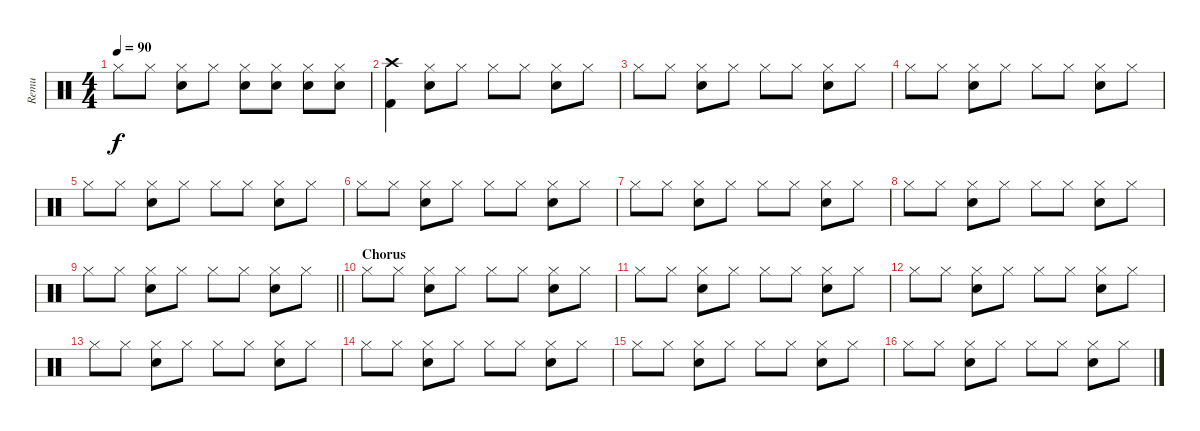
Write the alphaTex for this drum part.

\track ("Remu" "Remu") {instrument percussion}
\staff {score}
\articulation defaults
\ts (4 4)
\tempo 90
\clef neutral
\ks c "Hi-Hat (closed)".8{dy f} "Hi-Hat (closed)".8
("Hi-Hat (closed)" "Snare (hit) 2").8 "Hi-Hat (closed)".8 ("Hi-Hat (closed)" "Snare (hit) 2").8 ("Hi-Hat (closed)" "Snare (hit) 2").8 ("Hi-Hat (closed)" "Snare (hit) 2").8 ("Hi-Hat (closed)" "Snare (hit) 2").8 |
("Crash high (hit)" "Kick (hit) 2").4 ("Hi-Hat (closed)" "Snare (hit) 2").8 "Hi-Hat (closed)".8 "Hi-Hat (closed)".8 "Hi-Hat (closed)".8 ("Hi-Hat (closed)" "Snare (hit) 2").8 "Hi-Hat (closed)".8 |
"Hi-Hat (closed)".8 "Hi-Hat (closed)".8 ("Hi-Hat (closed)" "Snare (hit) 2").8 "Hi-Hat (closed)".8 "Hi-Hat (closed)".8 "Hi-Hat (closed)".8 ("Hi-Hat (closed)" "Snare (hit) 2").8 "Hi-Hat (closed)".8 |
"Hi-Hat (closed)".8 "Hi-Hat (closed)".8 ("Hi-Hat (closed)" "Snare (hit) 2").8 "Hi-Hat (closed)".8 "Hi-Hat (closed)".8 "Hi-Hat (closed)".8 ("Hi-Hat (closed)" "Snare (hit) 2").8 "Hi-Hat (closed)".8 |
"Hi-Hat (closed)".8 "Hi-Hat (closed)".8 ("Hi-Hat (closed)" "Snare (hit) 2").8 "Hi-Hat (closed)".8 "Hi-Hat (closed)".8 "Hi-Hat (closed)".8 ("Hi-Hat (closed)" "Snare (hit) 2").8 "Hi-Hat (closed)".8 |
"Hi-Hat (closed)".8 "Hi-Hat (closed)".8 ("Hi-Hat (closed)" "Snare (hit) 2").8 "Hi-Hat (closed)".8 "Hi-Hat (closed)".8 "Hi-Hat (closed)".8 ("Hi-Hat (closed)" "Snare (hit) 2").8 "Hi-Hat (closed)".8 |
"Hi-Hat (closed)".8 "Hi-Hat (closed)".8 ("Hi-Hat (closed)" "Snare (hit) 2").8 "Hi-Hat (closed)".8 "Hi-Hat (closed)".8 "Hi-Hat (closed)".8 ("Hi-Hat (closed)" "Snare (hit) 2").8 "Hi-Hat (closed)".8 |
"Hi-Hat (closed)".8 "Hi-Hat (closed)".8 ("Hi-Hat (closed)" "Snare (hit) 2").8 "Hi-Hat (closed)".8 "Hi-Hat (closed)".8 "Hi-Hat (closed)".8 ("Hi-Hat (closed)" "Snare (hit) 2").8 "Hi-Hat (closed)".8 |
\barLineRight lightlight "Hi-Hat (closed)".8 "Hi-Hat (closed)".8
("Hi-Hat (closed)" "Snare (hit) 2").8 "Hi-Hat (closed)".8 "Hi-Hat (closed)".8 "Hi-Hat (closed)".8 ("Hi-Hat (closed)" "Snare (hit) 2").8 "Hi-Hat (closed)".8 |
\section ("" "Chorus")
"Hi-Hat (closed)".8 "Hi-Hat (closed)".8 ("Hi-Hat (closed)" "Snare (hit) 2").8 "Hi-Hat (closed)".8 "Hi-Hat (closed)".8 "Hi-Hat (closed)".8 ("Hi-Hat (closed)" "Snare (hit) 2").8 "Hi-Hat (closed)".8 |
"Hi-Hat (closed)".8 "Hi-Hat (closed)".8 ("Hi-Hat (closed)" "Snare (hit) 2").8 "Hi-Hat (closed)".8 "Hi-Hat (closed)".8 "Hi-Hat (closed)".8 ("Hi-Hat (closed)" "Snare (hit) 2").8 "Hi-Hat (closed)".8 |
"Hi-Hat (closed)".8 "Hi-Hat (closed)".8 ("Hi-Hat (closed)" "Snare (hit) 2").8 "Hi-Hat (closed)".8 "Hi-Hat (closed)".8 "Hi-Hat (closed)".8 ("Hi-Hat (closed)" "Snare (hit) 2").8 "Hi-Hat (closed)".8 |
"Hi-Hat (closed)".8 "Hi-Hat (closed)".8 ("Hi-Hat (closed)" "Snare (hit) 2").8 "Hi-Hat (closed)".8 "Hi-Hat (closed)".8 "Hi-Hat (closed)".8 ("Hi-Hat (closed)" "Snare (hit) 2").8 "Hi-Hat (closed)".8 |
"Hi-Hat (closed)".8 "Hi-Hat (closed)".8 ("Hi-Hat (closed)" "Snare (hit) 2").8 "Hi-Hat (closed)".8 "Hi-Hat (closed)".8 "Hi-Hat (closed)".8 ("Hi-Hat (closed)" "Snare (hit) 2").8 "Hi-Hat (closed)".8 |
"Hi-Hat (closed)".8 "Hi-Hat (closed)".8 ("Hi-Hat (closed)" "Snare (hit) 2").8 "Hi-Hat (closed)".8 "Hi-Hat (closed)".8 "Hi-Hat (closed)".8 ("Hi-Hat (closed)" "Snare (hit) 2").8 "Hi-Hat (closed)".8 |
"Hi-Hat (closed)".8 "Hi-Hat (closed)".8 ("Hi-Hat (closed)" "Snare (hit) 2").8 "Hi-Hat (closed)".8 "Hi-Hat (closed)".8 "Hi-Hat (closed)".8 ("Hi-Hat (closed)" "Snare (hit) 2").8 "Hi-Hat (closed)".8
